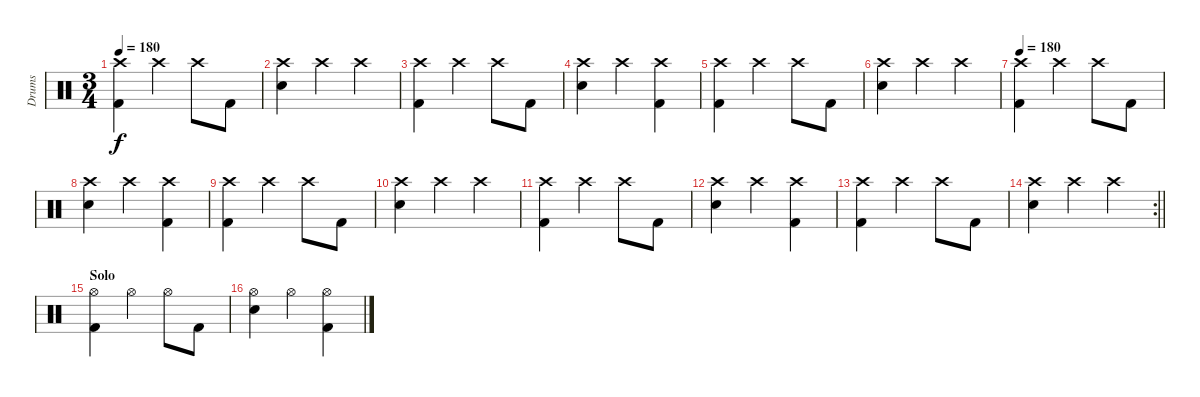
\track ("Drums" "Drums") {instrument percussion}
\staff {score}
\articulation defaults
\ts (3 4)
\tempo 180
\clef neutral
\ks c
("Crash high (hit)" "Kick (hit) 2").4{dy f} "Crash high (hit)".4 "Crash high (hit)".8 "Kick (hit) 2".8 |
("Crash high (hit)" "Electric Snare (hit)").4 "Crash high (hit)".4 "Crash high (hit)".4 |
("Crash high (hit)" "Kick (hit) 2").4 "Crash high (hit)".4 "Crash high (hit)".8 "Kick (hit) 2".8 |
("Crash high (hit)" "Electric Snare (hit)").4 "Crash high (hit)".4 ("Crash high (hit)" "Kick (hit) 2").4 |
("Crash high (hit)" "Kick (hit) 2").4 "Crash high (hit)".4 "Crash high (hit)".8 "Kick (hit) 2".8 |
("Crash high (hit)" "Electric Snare (hit)").4 "Crash high (hit)".4 "Crash high (hit)".4 |
\tempo 180
("Crash high (hit)" "Kick (hit) 2").4 "Crash high (hit)".4 "Crash high (hit)".8 "Kick (hit) 2".8 |
("Crash high (hit)" "Electric Snare (hit)").4 "Crash high (hit)".4 ("Crash high (hit)" "Kick (hit) 2").4 |
("Crash high (hit)" "Kick (hit) 2").4 "Crash high (hit)".4 "Crash high (hit)".8 "Kick (hit) 2".8 |
("Crash high (hit)" "Electric Snare (hit)").4 "Crash high (hit)".4 "Crash high (hit)".4 |
("Crash high (hit)" "Kick (hit) 2").4 "Crash high (hit)".4 "Crash high (hit)".8 "Kick (hit) 2".8 |
("Crash high (hit)" "Electric Snare (hit)").4 "Crash high (hit)".4 ("Crash high (hit)" "Kick (hit) 2").4 |
("Crash high (hit)" "Kick (hit) 2").4 "Crash high (hit)".4 "Crash high (hit)".8 "Kick (hit) 2".8 |
\rc 2
\barLineRight lightlight
("Crash high (hit)" "Electric Snare (hit)").4 "Crash high (hit)".4 "Crash high (hit)".4 |
\section ("" "Solo")
("Hi-Hat (open)" "Kick (hit) 2").4 "Hi-Hat (open)".4 "Hi-Hat (open)".8 "Kick (hit) 2".8 |
("Hi-Hat (open)" "Electric Snare (hit)").4 "Hi-Hat (open)".4 ("Hi-Hat (open)" "Kick (hit) 2").4
